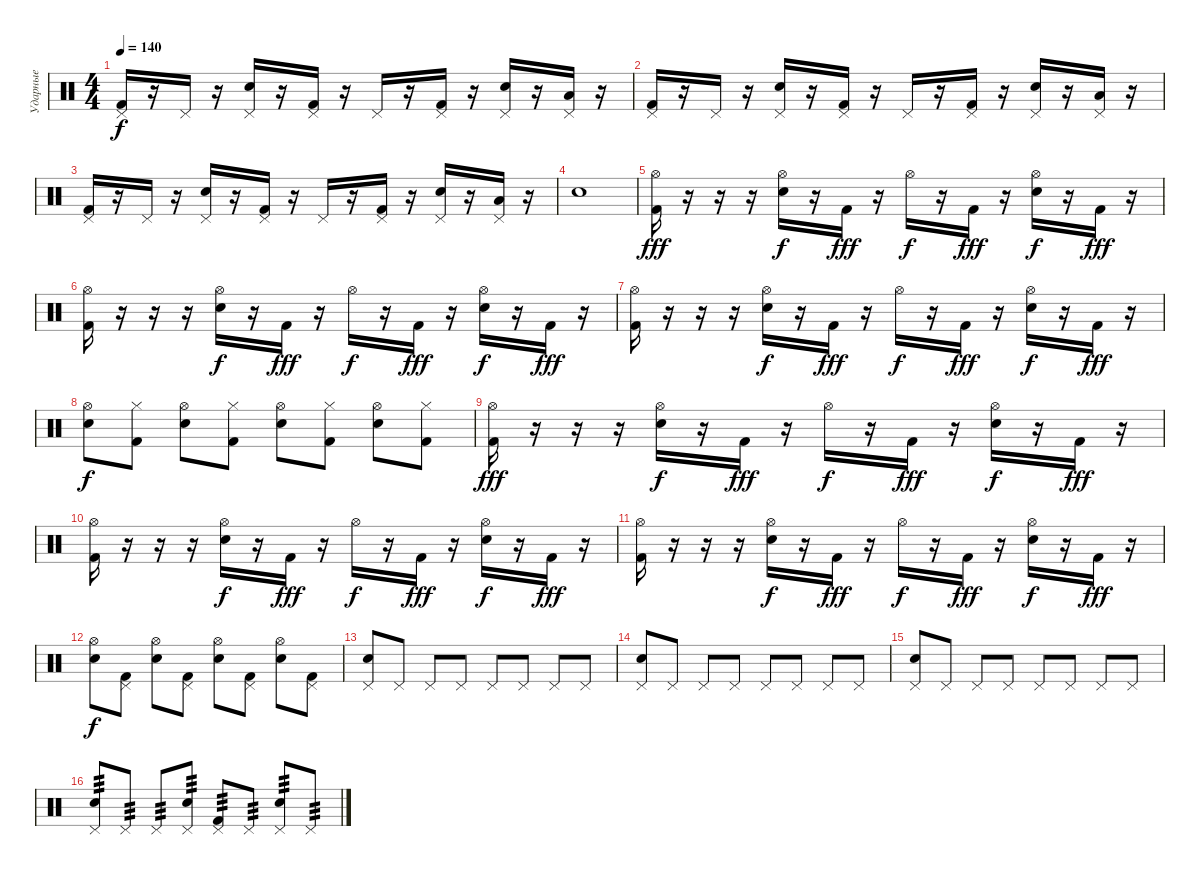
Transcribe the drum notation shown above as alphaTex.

\track ("Ударные" "Ударные") {instrument percussion}
\staff {score}
\articulation defaults
\ts (4 4)
\tempo 140
\clef neutral
\ks c
("Kick (hit) 2" "Pedal Hi-Hat (hit)").16{dy f} r.16 "Pedal Hi-Hat (hit)".16 r.16 ("Snare (hit) 2" "Pedal Hi-Hat (hit)").16 r.16 ("Kick (hit) 2" "Pedal Hi-Hat (hit)").16 r.16 "Pedal Hi-Hat (hit)".16 r.16 ("Kick (hit) 2" "Pedal Hi-Hat (hit)").16 r.16 ("Snare (hit) 2" "Pedal Hi-Hat (hit)").16 r.16 ("Low Tom (hit)" "Pedal Hi-Hat (hit)").16 r.16 |
("Kick (hit) 2" "Pedal Hi-Hat (hit)").16 r.16 "Pedal Hi-Hat (hit)".16 r.16 ("Snare (hit) 2" "Pedal Hi-Hat (hit)").16 r.16 ("Kick (hit) 2" "Pedal Hi-Hat (hit)").16 r.16 "Pedal Hi-Hat (hit)".16 r.16 ("Kick (hit) 2" "Pedal Hi-Hat (hit)").16 r.16 ("Snare (hit) 2" "Pedal Hi-Hat (hit)").16 r.16 ("Low Tom (hit)" "Pedal Hi-Hat (hit)").16 r.16 |
("Kick (hit) 2" "Pedal Hi-Hat (hit)").16 r.16 "Pedal Hi-Hat (hit)".16 r.16 ("Snare (hit) 2" "Pedal Hi-Hat (hit)").16 r.16 ("Kick (hit) 2" "Pedal Hi-Hat (hit)").16 r.16 "Pedal Hi-Hat (hit)".16 r.16 ("Kick (hit) 2" "Pedal Hi-Hat (hit)").16 r.16 ("Snare (hit) 2" "Pedal Hi-Hat (hit)").16 r.16 ("Low Tom (hit)" "Pedal Hi-Hat (hit)").16 r.16 |
"Snare (hit) 2".1 |
("Kick (hit) 2" "Hi-Hat (open)").16{dy fff} r.16 r.16 r.16 ("Snare (hit) 2" "Hi-Hat (open)").16{dy f} r.16 "Kick (hit) 2".16{dy fff} r.16 "Hi-Hat (open)".16{dy f} r.16 "Kick (hit) 2".16{dy fff} r.16 ("Snare (hit) 2" "Hi-Hat (open)").16{dy f} r.16 "Kick (hit) 2".16{dy fff} r.16 |
("Kick (hit) 2" "Hi-Hat (open)").16 r.16 r.16 r.16 ("Snare (hit) 2" "Hi-Hat (open)").16{dy f} r.16 "Kick (hit) 2".16{dy fff} r.16 "Hi-Hat (open)".16{dy f} r.16 "Kick (hit) 2".16{dy fff} r.16 ("Snare (hit) 2" "Hi-Hat (open)").16{dy f} r.16 "Kick (hit) 2".16{dy fff} r.16 |
("Kick (hit) 2" "Hi-Hat (open)").16 r.16 r.16 r.16 ("Snare (hit) 2" "Hi-Hat (open)").16{dy f} r.16 "Kick (hit) 2".16{dy fff} r.16 "Hi-Hat (open)".16{dy f} r.16 "Kick (hit) 2".16{dy fff} r.16 ("Snare (hit) 2" "Hi-Hat (open)").16{dy f} r.16 "Kick (hit) 2".16{dy fff} r.16 |
("Snare (hit) 2" "Hi-Hat (open)").8{dy f} ("Kick (hit) 2" "Hi-Hat (closed)").8 ("Snare (hit) 2" "Hi-Hat (open)").8 ("Kick (hit) 2" "Hi-Hat (closed)").8 ("Snare (hit) 2" "Hi-Hat (open)").8 ("Kick (hit) 2" "Hi-Hat (closed)").8 ("Snare (hit) 2" "Hi-Hat (open)").8 ("Kick (hit) 2" "Hi-Hat (closed)").8 |
("Kick (hit) 2" "Hi-Hat (open)").16{dy fff} r.16 r.16 r.16 ("Snare (hit) 2" "Hi-Hat (open)").16{dy f} r.16 "Kick (hit) 2".16{dy fff} r.16 "Hi-Hat (open)".16{dy f} r.16 "Kick (hit) 2".16{dy fff} r.16 ("Snare (hit) 2" "Hi-Hat (open)").16{dy f} r.16 "Kick (hit) 2".16{dy fff} r.16 |
("Kick (hit) 2" "Hi-Hat (open)").16 r.16 r.16 r.16 ("Snare (hit) 2" "Hi-Hat (open)").16{dy f} r.16 "Kick (hit) 2".16{dy fff} r.16 "Hi-Hat (open)".16{dy f} r.16 "Kick (hit) 2".16{dy fff} r.16 ("Snare (hit) 2" "Hi-Hat (open)").16{dy f} r.16 "Kick (hit) 2".16{dy fff} r.16 |
("Kick (hit) 2" "Hi-Hat (open)").16 r.16 r.16 r.16 ("Snare (hit) 2" "Hi-Hat (open)").16{dy f} r.16 "Kick (hit) 2".16{dy fff} r.16 "Hi-Hat (open)".16{dy f} r.16 "Kick (hit) 2".16{dy fff} r.16 ("Snare (hit) 2" "Hi-Hat (open)").16{dy f} r.16 "Kick (hit) 2".16{dy fff} r.16 |
("Snare (hit) 2" "Hi-Hat (open)").8{dy f} ("Kick (hit) 2" "Pedal Hi-Hat (hit)").8 ("Snare (hit) 2" "Hi-Hat (open)").8 ("Kick (hit) 2" "Pedal Hi-Hat (hit)").8 ("Snare (hit) 2" "Hi-Hat (open)").8 ("Kick (hit) 2" "Pedal Hi-Hat (hit)").8 ("Snare (hit) 2" "Hi-Hat (open)").8 ("Kick (hit) 2" "Pedal Hi-Hat (hit)").8 |
("Snare (hit) 2" "Pedal Hi-Hat (hit)").8 "Pedal Hi-Hat (hit)".8 "Pedal Hi-Hat (hit)".8 "Pedal Hi-Hat (hit)".8 "Pedal Hi-Hat (hit)".8 "Pedal Hi-Hat (hit)".8 "Pedal Hi-Hat (hit)".8 "Pedal Hi-Hat (hit)".8 |
("Snare (hit) 2" "Pedal Hi-Hat (hit)").8 "Pedal Hi-Hat (hit)".8 "Pedal Hi-Hat (hit)".8 "Pedal Hi-Hat (hit)".8 "Pedal Hi-Hat (hit)".8 "Pedal Hi-Hat (hit)".8 "Pedal Hi-Hat (hit)".8 "Pedal Hi-Hat (hit)".8 |
("Snare (hit) 2" "Pedal Hi-Hat (hit)").8 "Pedal Hi-Hat (hit)".8 "Pedal Hi-Hat (hit)".8 "Pedal Hi-Hat (hit)".8 "Pedal Hi-Hat (hit)".8 "Pedal Hi-Hat (hit)".8 "Pedal Hi-Hat (hit)".8 "Pedal Hi-Hat (hit)".8 |
("Snare (hit) 2" "Pedal Hi-Hat (hit)").8{tp 3} "Pedal Hi-Hat (hit)".8{tp 3} "Pedal Hi-Hat (hit)".8{tp 3} ("Snare (hit) 2" "Pedal Hi-Hat (hit)").8{tp 3} ("Kick (hit) 2" "Pedal Hi-Hat (hit)").8{tp 3} "Pedal Hi-Hat (hit)".8{tp 3} ("Snare (hit) 2" "Pedal Hi-Hat (hit)").8{tp 3} "Pedal Hi-Hat (hit)".8{tp 3}
